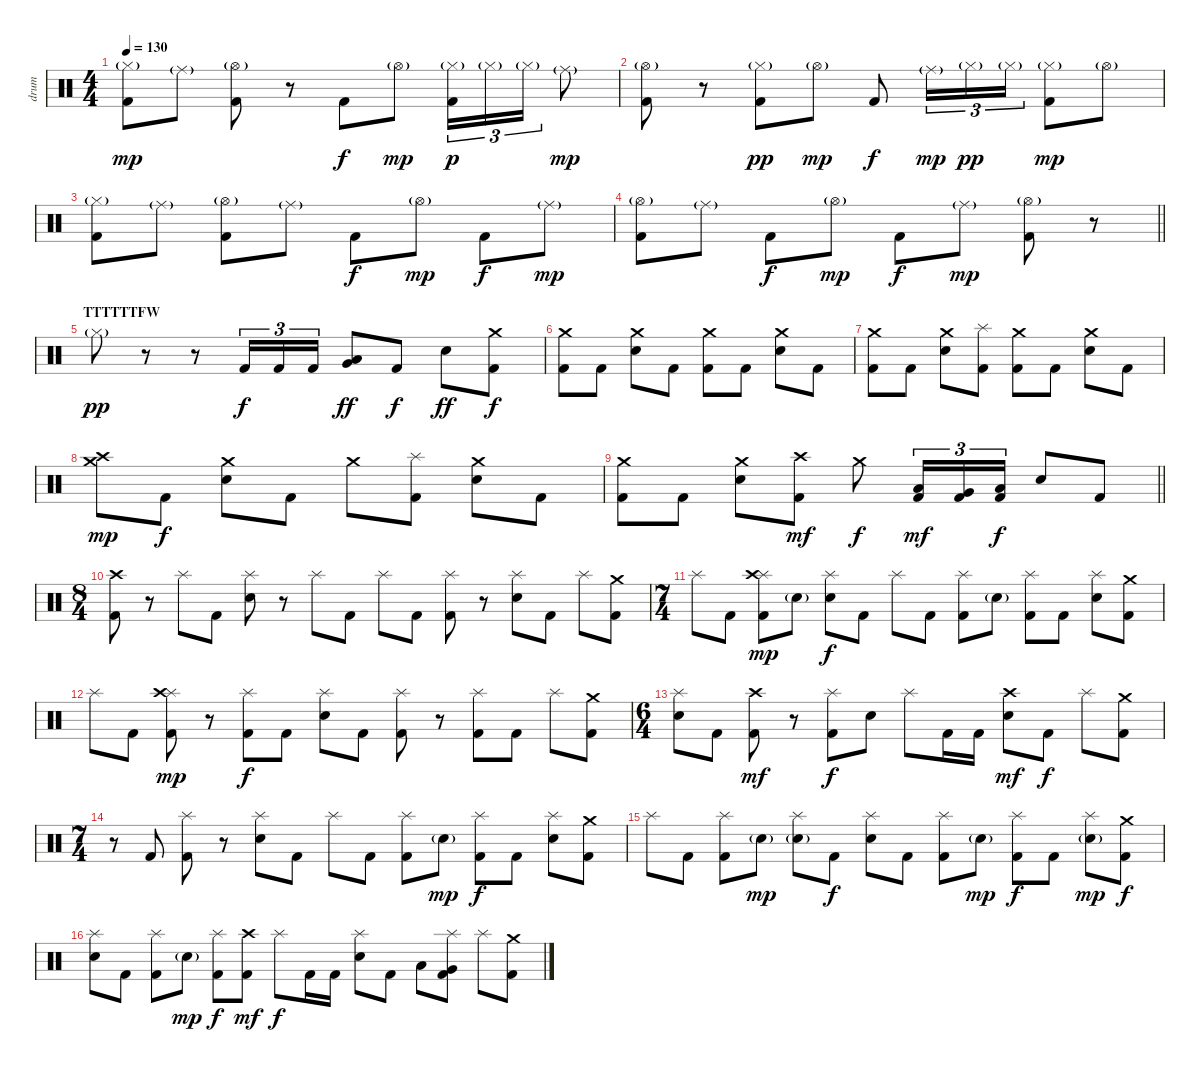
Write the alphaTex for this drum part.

\track ("drum" "drum") {instrument percussion}
\staff {score}
\articulation defaults
\ts (4 4)
\tempo 130
\clef neutral
\ks c
("Hi-Hat (closed)"{g} "Kick (hit) 2").8{dy mp} "Ride (middle)"{g}.8 ("Hi-Hat (open)"{g} "Kick (hit) 2").8 r.8 "Kick (hit) 2".8{dy f} "Hi-Hat (open)"{g}.8{dy mp} ("Hi-Hat (closed)"{g} "Kick (hit) 2").16{tu (3 2) dy p} "Hi-Hat (closed)"{g}.16{tu (3 2)} "Hi-Hat (closed)"{g}.16{tu (3 2)} "Ride (middle)"{g}.8{dy mp} |
("Hi-Hat (open)"{g} "Kick (hit) 2").8 r.8 ("Hi-Hat (closed)"{g} "Kick (hit) 2").8{dy pp} "Hi-Hat (open)"{g}.8{dy mp} "Kick (hit) 2".8{dy f} "Ride (middle)"{g}.16{tu (3 2) dy mp} "Hi-Hat (closed)"{g}.16{tu (3 2) dy pp} "Hi-Hat (closed)"{g}.16{tu (3 2)} ("Hi-Hat (closed)"{g} "Kick (hit) 2").8{dy mp} "Hi-Hat (open)"{g}.8 |
("Hi-Hat (closed)"{g} "Kick (hit) 2").8 "Ride (middle)"{g}.8 ("Hi-Hat (open)"{g} "Kick (hit) 2").8 "Ride (middle)"{g}.8 "Kick (hit) 2".8{dy f} "Hi-Hat (open)"{g}.8{dy mp} "Kick (hit) 2".8{dy f} "Ride (middle)"{g}.8{dy mp} |
\barLineRight lightlight
("Hi-Hat (open)"{g} "Kick (hit) 2").8 "Ride (middle)"{g}.8 "Kick (hit) 2".8{dy f} "Hi-Hat (open)"{g}.8{dy mp} "Kick (hit) 2".8{dy f} "Ride (middle)"{g}.8{dy mp} ("Hi-Hat (open)"{g} "Kick (hit) 2").8 r.8 |
\section ("" "TTTTTTFW")
"Hi-Hat (closed)"{g}.8{dy pp} r.8 r.8 "Kick (hit) 2".16{tu (3 2) dy f} "Kick (hit) 2".16{tu (3 2)} "Kick (hit) 2".16{tu (3 2)} ("Very Low Tom (hit)" "Low Floor Tom (hit)").8{bd 120 dy ff} "Kick (hit) 2".8{dy f} "Electric Snare (hit)".8{dy ff} ("Crash medium (hit)" "Kick (hit) 2").8{dy f} |
("Crash medium (hit)" "Kick (hit) 2").8 "Kick (hit) 2".8 ("Crash medium (hit)" "Electric Snare (hit)").8 "Kick (hit) 2".8 ("Crash medium (hit)" "Kick (hit) 2").8 "Kick (hit) 2".8 ("Crash medium (hit)" "Electric Snare (hit)").8 "Kick (hit) 2".8 |
("Crash medium (hit)" "Kick (hit) 2").8 "Kick (hit) 2".8 ("Crash medium (hit)" "Electric Snare (hit)").8 ("Splash (hit)" "Kick (hit) 2").8 ("Crash medium (hit)" "Kick (hit) 2").8 "Kick (hit) 2".8 ("Crash medium (hit)" "Electric Snare (hit)").8 "Kick (hit) 2".8 |
("Crash medium (hit)" "Crash high (hit)").8{dy mp} "Kick (hit) 2".8{dy f} ("Crash medium (hit)" "Electric Snare (hit)").8 "Kick (hit) 2".8 "Crash medium (hit)".8 ("Splash (hit)" "Kick (hit) 2").8 ("Crash medium (hit)" "Electric Snare (hit)").8 "Kick (hit) 2".8 |
\barLineRight lightlight
("Crash medium (hit)" "Kick (hit) 2").8 "Kick (hit) 2".8 ("Crash medium (hit)" "Electric Snare (hit)").8 ("Crash high (hit)" "Kick (hit) 2").8{dy mf} "Crash medium (hit)".8{dy f} ("Low Floor Tom (hit)" "Kick (hit) 2").16{tu (3 2) dy mf} ("Very Low Tom (hit)" "Kick (hit) 2").16{tu (3 2)} ("Low Tom (hit)" "Kick (hit) 2").16{tu (3 2) dy f} "Electric Snare (hit)".8 "Kick (hit) 2".8 |
\ts (8 4)
("Crash high (hit)" "Kick (hit) 2").8 r.8 "Splash (hit)".8 "Kick (hit) 2".8 ("Splash (hit)" "Electric Snare (hit)").8 r.8 "Splash (hit)".8 "Kick (hit) 2".8 "Splash (hit)".8 "Kick (hit) 2".8 ("Splash (hit)" "Kick (hit) 2").8 r.8 ("Splash (hit)" "Electric Snare (hit)").8 "Kick (hit) 2".8 "Splash (hit)".8 ("Crash medium (hit)" "Kick (hit) 2").8 |
\ts (7 4)
"Splash (hit)".8 "Kick (hit) 2".8 ("Splash (hit)" "Crash high (hit)" "Kick (hit) 2").8{dy mp} "Electric Snare (hit)"{g}.8 ("Splash (hit)" "Electric Snare (hit)").8{dy f} "Kick (hit) 2".8 "Splash (hit)".8 "Kick (hit) 2".8 ("Splash (hit)" "Kick (hit) 2").8 "Electric Snare (hit)"{g}.8 ("Splash (hit)" "Kick (hit) 2").8 "Kick (hit) 2".8 ("Splash (hit)" "Electric Snare (hit)").8 ("Crash medium (hit)" "Kick (hit) 2").8 |
"Splash (hit)".8 "Kick (hit) 2".8 ("Splash (hit)" "Crash high (hit)" "Kick (hit) 2").8{dy mp} r.8 ("Splash (hit)" "Kick (hit) 2").8{dy f} "Kick (hit) 2".8 ("Splash (hit)" "Electric Snare (hit)").8 "Kick (hit) 2".8 ("Splash (hit)" "Kick (hit) 2").8 r.8 ("Splash (hit)" "Kick (hit) 2").8 "Kick (hit) 2".8 "Splash (hit)".8 ("Crash medium (hit)" "Kick (hit) 2").8 |
\ts (6 4)
("Splash (hit)" "Electric Snare (hit)").8 "Kick (hit) 2".8 ("Crash high (hit)" "Kick (hit) 2").8{dy mf} r.8 ("Splash (hit)" "Kick (hit) 2").8{dy f} "Electric Snare (hit)".8 "Splash (hit)".8 "Kick (hit) 2".16 "Kick (hit) 2".16 ("Crash high (hit)" "Electric Snare (hit)").8{dy mf} "Kick (hit) 2".8{dy f} "Splash (hit)".8 ("Crash medium (hit)" "Kick (hit) 2").8 |
\ts (7 4)
r.8 "Kick (hit) 2".8 ("Splash (hit)" "Kick (hit) 2").8 r.8 ("Splash (hit)" "Electric Snare (hit)").8 "Kick (hit) 2".8 "Splash (hit)".8 "Kick (hit) 2".8 ("Splash (hit)" "Kick (hit) 2").8 "Electric Snare (hit)"{g}.8{dy mp} ("Splash (hit)" "Kick (hit) 2").8{dy f} "Kick (hit) 2".8 ("Splash (hit)" "Electric Snare (hit)").8 ("Crash medium (hit)" "Kick (hit) 2").8 |
"Splash (hit)".8 "Kick (hit) 2".8 ("Splash (hit)" "Kick (hit) 2").8 "Electric Snare (hit)"{g}.8{dy mp} ("Splash (hit)" "Electric Snare (hit)"{g}).8 "Kick (hit) 2".8{dy f} ("Splash (hit)" "Electric Snare (hit)").8 "Kick (hit) 2".8 ("Splash (hit)" "Kick (hit) 2").8 "Electric Snare (hit)"{g}.8{dy mp} ("Splash (hit)" "Kick (hit) 2").8{dy f} "Kick (hit) 2".8 ("Splash (hit)" "Electric Snare (hit)"{g}).8{dy mp} ("Crash medium (hit)" "Kick (hit) 2").8{dy f} |
("Splash (hit)" "Electric Snare (hit)").8 "Kick (hit) 2".8 ("Splash (hit)" "Kick (hit) 2").8 "Electric Snare (hit)"{g}.8{dy mp} ("Splash (hit)" "Kick (hit) 2").8{dy f} ("Crash high (hit)" "Kick (hit) 2").8{dy mf} "Splash (hit)".8{dy f} "Kick (hit) 2".16 "Kick (hit) 2".16 ("Splash (hit)" "Electric Snare (hit)").8 "Kick (hit) 2".8 "Low Tom (hit)".8 ("Splash (hit)" "Very Low Tom (hit)" "Kick (hit) 2").8 "Splash (hit)".8 ("Crash medium (hit)" "Kick (hit) 2").8
